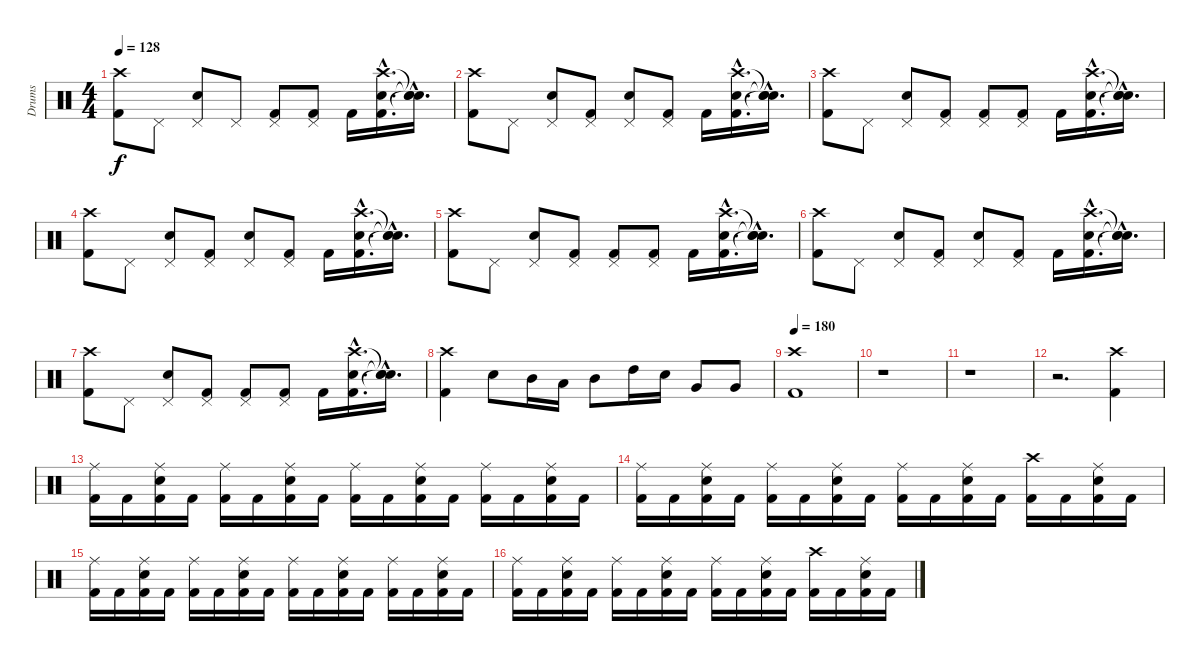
\track ("Drums" "Drums") {instrument percussion}
\staff {score}
\articulation defaults
\ts (4 4)
\tempo 128
\clef neutral
\ks c
("Crash high (hit)" "Kick (hit) 2").8{dy f} "Pedal Hi-Hat (hit)".8 ("Pedal Hi-Hat (hit)" "Electric Snare (hit)").8 "Pedal Hi-Hat (hit)".8 ("Pedal Hi-Hat (hit)" "Kick (hit) 2").8 ("Pedal Hi-Hat (hit)" "Kick (hit) 2").8 "Kick (hit) 2".16 ("Crash high (hit)"{hac} "Electric Snare (hit)"{hac} "Kick (hit) 2"{hac}).16{d} ("Snare (hit)"{hac t} "Snare (hit)"{hac t} "Snare (hit)"{hac t}).16{d} |
("Crash high (hit)" "Kick (hit) 2").8 "Pedal Hi-Hat (hit)".8 ("Pedal Hi-Hat (hit)" "Electric Snare (hit)").8 ("Pedal Hi-Hat (hit)" "Kick (hit) 2").8 ("Pedal Hi-Hat (hit)" "Electric Snare (hit)").8 ("Pedal Hi-Hat (hit)" "Kick (hit) 2").8 "Kick (hit) 2".16 ("Crash high (hit)"{hac} "Electric Snare (hit)"{hac} "Kick (hit) 2"{hac}).16{d} ("Snare (hit)"{hac t} "Snare (hit)"{hac t} "Snare (hit)"{hac t}).16{d} |
("Crash high (hit)" "Kick (hit) 2").8 "Pedal Hi-Hat (hit)".8 ("Pedal Hi-Hat (hit)" "Electric Snare (hit)").8 ("Pedal Hi-Hat (hit)" "Kick (hit) 2").8 ("Pedal Hi-Hat (hit)" "Kick (hit) 2").8 ("Pedal Hi-Hat (hit)" "Kick (hit) 2").8 "Kick (hit) 2".16 ("Crash high (hit)"{hac} "Electric Snare (hit)"{hac} "Kick (hit) 2"{hac}).16{d} ("Snare (hit)"{hac t} "Snare (hit)"{hac t} "Snare (hit)"{hac t}).16{d} |
("Crash high (hit)" "Kick (hit) 2").8 "Pedal Hi-Hat (hit)".8 ("Pedal Hi-Hat (hit)" "Electric Snare (hit)").8 ("Pedal Hi-Hat (hit)" "Kick (hit) 2").8 ("Pedal Hi-Hat (hit)" "Electric Snare (hit)").8 ("Pedal Hi-Hat (hit)" "Kick (hit) 2").8 "Kick (hit) 2".16 ("Crash high (hit)"{hac} "Electric Snare (hit)"{hac} "Kick (hit) 2"{hac}).16{d} ("Snare (hit)"{hac t} "Snare (hit)"{hac t} "Snare (hit)"{hac t}).16{d} |
("Crash high (hit)" "Kick (hit) 2").8 "Pedal Hi-Hat (hit)".8 ("Pedal Hi-Hat (hit)" "Electric Snare (hit)").8 ("Pedal Hi-Hat (hit)" "Kick (hit) 2").8 ("Pedal Hi-Hat (hit)" "Kick (hit) 2").8 ("Pedal Hi-Hat (hit)" "Kick (hit) 2").8 "Kick (hit) 2".16 ("Crash high (hit)"{hac} "Electric Snare (hit)"{hac} "Kick (hit) 2"{hac}).16{d} ("Snare (hit)"{hac t} "Snare (hit)"{hac t} "Snare (hit)"{hac t}).16{d} |
("Crash high (hit)" "Kick (hit) 2").8 "Pedal Hi-Hat (hit)".8 ("Pedal Hi-Hat (hit)" "Electric Snare (hit)").8 ("Pedal Hi-Hat (hit)" "Kick (hit) 2").8 ("Pedal Hi-Hat (hit)" "Electric Snare (hit)").8 ("Pedal Hi-Hat (hit)" "Kick (hit) 2").8 "Kick (hit) 2".16 ("Crash high (hit)"{hac} "Electric Snare (hit)"{hac} "Kick (hit) 2"{hac}).16{d} ("Snare (hit)"{hac t} "Snare (hit)"{hac t} "Snare (hit)"{hac t}).16{d} |
("Crash high (hit)" "Kick (hit) 2").8 "Pedal Hi-Hat (hit)".8 ("Pedal Hi-Hat (hit)" "Electric Snare (hit)").8 ("Pedal Hi-Hat (hit)" "Kick (hit) 2").8 ("Pedal Hi-Hat (hit)" "Kick (hit) 2").8 ("Pedal Hi-Hat (hit)" "Kick (hit) 2").8 "Kick (hit) 2".16 ("Crash high (hit)"{hac} "Electric Snare (hit)"{hac} "Kick (hit) 2"{hac}).16{d} ("Snare (hit)"{hac t} "Snare (hit)"{hac t} "Snare (hit)"{hac t}).16{d} |
("Crash high (hit)" "Kick (hit) 2").4 "Electric Snare (hit)".8 "Mid Tom (hit)".16 "Low Tom (hit)".16 "Mid Tom (hit)".8 "High Tom (hit)".16 "Electric Snare (hit)".16 "Very Low Tom (hit)".8 "Very Low Tom (hit)".8 |
\tempo 180
("Crash high (hit)" "Kick (hit) 2").1 |
r.1 |
r.1 |
r.2{d} ("Crash high (hit)" "Kick (hit) 2").4 |
("Ride (middle)" "Kick (hit) 2").16 "Kick (hit) 2".16 ("Ride (middle)" "Electric Snare (hit)" "Kick (hit) 2").16 "Kick (hit) 2".16 ("Ride (middle)" "Kick (hit) 2").16 "Kick (hit) 2".16 ("Ride (middle)" "Electric Snare (hit)" "Kick (hit) 2").16 "Kick (hit) 2".16 ("Ride (middle)" "Kick (hit) 2").16 "Kick (hit) 2".16 ("Ride (middle)" "Electric Snare (hit)" "Kick (hit) 2").16 "Kick (hit) 2".16 ("Ride (middle)" "Kick (hit) 2").16 "Kick (hit) 2".16 ("Ride (middle)" "Electric Snare (hit)" "Kick (hit) 2").16 "Kick (hit) 2".16 |
("Ride (middle)" "Kick (hit) 2").16 "Kick (hit) 2".16 ("Ride (middle)" "Electric Snare (hit)" "Kick (hit) 2").16 "Kick (hit) 2".16 ("Ride (middle)" "Kick (hit) 2").16 "Kick (hit) 2".16 ("Ride (middle)" "Electric Snare (hit)" "Kick (hit) 2").16 "Kick (hit) 2".16 ("Ride (middle)" "Kick (hit) 2").16 "Kick (hit) 2".16 ("Ride (middle)" "Electric Snare (hit)" "Kick (hit) 2").16 "Kick (hit) 2".16 ("Crash high (hit)" "Kick (hit) 2").16 "Kick (hit) 2".16 ("Ride (middle)" "Electric Snare (hit)" "Kick (hit) 2").16 "Kick (hit) 2".16 |
("Ride (middle)" "Kick (hit) 2").16 "Kick (hit) 2".16 ("Ride (middle)" "Electric Snare (hit)" "Kick (hit) 2").16 "Kick (hit) 2".16 ("Ride (middle)" "Kick (hit) 2").16 "Kick (hit) 2".16 ("Ride (middle)" "Electric Snare (hit)" "Kick (hit) 2").16 "Kick (hit) 2".16 ("Ride (middle)" "Kick (hit) 2").16 "Kick (hit) 2".16 ("Ride (middle)" "Electric Snare (hit)" "Kick (hit) 2").16 "Kick (hit) 2".16 ("Ride (middle)" "Kick (hit) 2").16 "Kick (hit) 2".16 ("Ride (middle)" "Electric Snare (hit)" "Kick (hit) 2").16 "Kick (hit) 2".16 |
("Ride (middle)" "Kick (hit) 2").16 "Kick (hit) 2".16 ("Ride (middle)" "Electric Snare (hit)" "Kick (hit) 2").16 "Kick (hit) 2".16 ("Ride (middle)" "Kick (hit) 2").16 "Kick (hit) 2".16 ("Ride (middle)" "Electric Snare (hit)" "Kick (hit) 2").16 "Kick (hit) 2".16 ("Ride (middle)" "Kick (hit) 2").16 "Kick (hit) 2".16 ("Ride (middle)" "Electric Snare (hit)" "Kick (hit) 2").16 "Kick (hit) 2".16 ("Crash high (hit)" "Kick (hit) 2").16 "Kick (hit) 2".16 ("Ride (middle)" "Electric Snare (hit)" "Kick (hit) 2").16 "Kick (hit) 2".16
